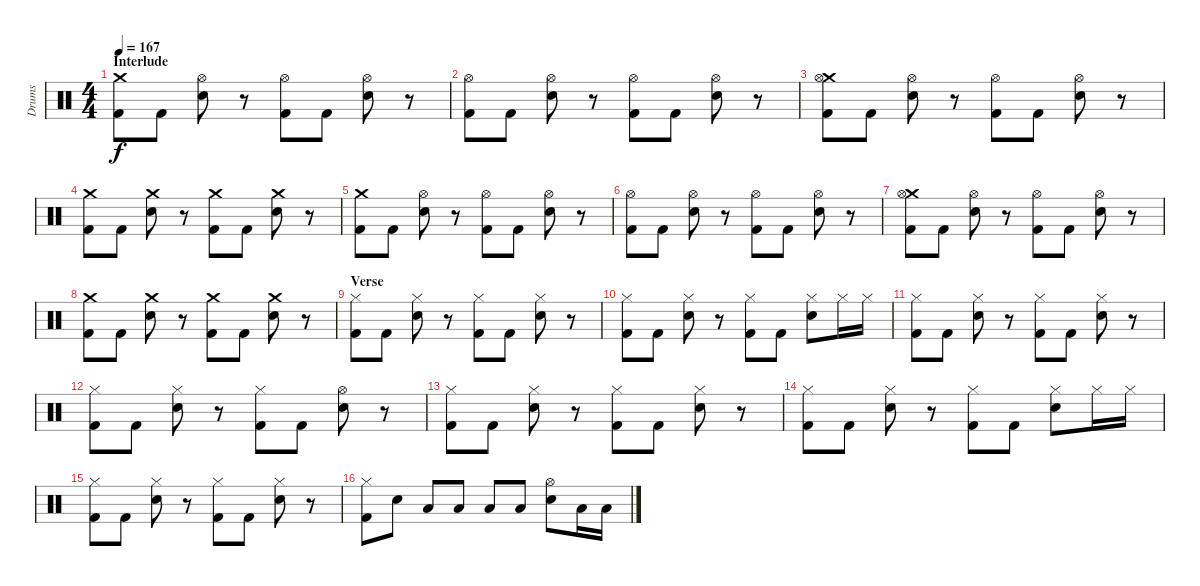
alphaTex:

\track ("Drums" "Drums") {instrument percussion}
\staff {score}
\articulation defaults
\ts (4 4)
\section ("" "Interlude")
\tempo 167
\clef neutral
\ks c
("Crash medium (hit)" "Kick (hit) 2").8{dy f} "Kick (hit) 2".8 ("Hi-Hat (open)" "Electric Snare (hit)").8 r.8 ("Hi-Hat (open)" "Kick (hit) 2").8 "Kick (hit) 2".8 ("Hi-Hat (open)" "Electric Snare (hit)").8 r.8 |
("Hi-Hat (open)" "Kick (hit) 2").8 "Kick (hit) 2".8 ("Hi-Hat (open)" "Electric Snare (hit)").8 r.8 ("Hi-Hat (open)" "Kick (hit) 2").8 "Kick (hit) 2".8 ("Hi-Hat (open)" "Electric Snare (hit)").8 r.8 |
("Crash medium (hit)" "Hi-Hat (open)" "Kick (hit) 2").8 "Kick (hit) 2".8 ("Hi-Hat (open)" "Electric Snare (hit)").8 r.8 ("Hi-Hat (open)" "Kick (hit) 2").8 "Kick (hit) 2".8 ("Hi-Hat (open)" "Electric Snare (hit)").8 r.8 |
("Crash medium (hit)" "Kick (hit) 2").8 "Kick (hit) 2".8 ("Crash medium (hit)" "Electric Snare (hit)").8 r.8 ("Crash medium (hit)" "Kick (hit) 2").8 "Kick (hit) 2".8 ("Crash medium (hit)" "Electric Snare (hit)").8 r.8 |
("Crash medium (hit)" "Kick (hit) 2").8 "Kick (hit) 2".8 ("Hi-Hat (open)" "Electric Snare (hit)").8 r.8 ("Hi-Hat (open)" "Kick (hit) 2").8 "Kick (hit) 2".8 ("Hi-Hat (open)" "Electric Snare (hit)").8 r.8 |
("Hi-Hat (open)" "Kick (hit) 2").8 "Kick (hit) 2".8 ("Hi-Hat (open)" "Electric Snare (hit)").8 r.8 ("Hi-Hat (open)" "Kick (hit) 2").8 "Kick (hit) 2".8 ("Hi-Hat (open)" "Electric Snare (hit)").8 r.8 |
("Crash medium (hit)" "Hi-Hat (open)" "Kick (hit) 2").8 "Kick (hit) 2".8 ("Hi-Hat (open)" "Electric Snare (hit)").8 r.8 ("Hi-Hat (open)" "Kick (hit) 2").8 "Kick (hit) 2".8 ("Hi-Hat (open)" "Electric Snare (hit)").8 r.8 |
("Crash medium (hit)" "Kick (hit) 2").8 "Kick (hit) 2".8 ("Crash medium (hit)" "Electric Snare (hit)").8 r.8 ("Crash medium (hit)" "Kick (hit) 2").8 "Kick (hit) 2".8 ("Crash medium (hit)" "Electric Snare (hit)").8 r.8 |
\section ("" "Verse")
("Hi-Hat (closed)" "Kick (hit) 2").8 "Kick (hit) 2".8 ("Hi-Hat (closed)" "Electric Snare (hit)").8 r.8 ("Hi-Hat (closed)" "Kick (hit) 2").8 "Kick (hit) 2".8 ("Hi-Hat (closed)" "Electric Snare (hit)").8 r.8 |
("Hi-Hat (closed)" "Kick (hit) 2").8 "Kick (hit) 2".8 ("Hi-Hat (closed)" "Electric Snare (hit)").8 r.8 ("Hi-Hat (closed)" "Kick (hit) 2").8 "Kick (hit) 2".8 ("Hi-Hat (closed)" "Electric Snare (hit)").8 "Hi-Hat (closed)".16 "Hi-Hat (closed)".16 |
("Hi-Hat (closed)" "Kick (hit) 2").8 "Kick (hit) 2".8 ("Hi-Hat (closed)" "Electric Snare (hit)").8 r.8 ("Hi-Hat (closed)" "Kick (hit) 2").8 "Kick (hit) 2".8 ("Hi-Hat (closed)" "Electric Snare (hit)").8 r.8 |
("Hi-Hat (closed)" "Kick (hit) 2").8 "Kick (hit) 2".8 ("Hi-Hat (closed)" "Electric Snare (hit)").8 r.8 ("Hi-Hat (closed)" "Kick (hit) 2").8 "Kick (hit) 2".8 ("Hi-Hat (open)" "Electric Snare (hit)").8 r.8 |
("Hi-Hat (closed)" "Kick (hit) 2").8 "Kick (hit) 2".8 ("Hi-Hat (closed)" "Electric Snare (hit)").8 r.8 ("Hi-Hat (closed)" "Kick (hit) 2").8 "Kick (hit) 2".8 ("Hi-Hat (closed)" "Electric Snare (hit)").8 r.8 |
("Hi-Hat (closed)" "Kick (hit) 2").8 "Kick (hit) 2".8 ("Hi-Hat (closed)" "Electric Snare (hit)").8 r.8 ("Hi-Hat (closed)" "Kick (hit) 2").8 "Kick (hit) 2".8 ("Hi-Hat (closed)" "Electric Snare (hit)").8 "Hi-Hat (closed)".16 "Hi-Hat (closed)".16 |
("Hi-Hat (closed)" "Kick (hit) 2").8 "Kick (hit) 2".8 ("Hi-Hat (closed)" "Electric Snare (hit)").8 r.8 ("Hi-Hat (closed)" "Kick (hit) 2").8 "Kick (hit) 2".8 ("Hi-Hat (closed)" "Electric Snare (hit)").8 r.8 |
("Hi-Hat (closed)" "Kick (hit) 2").8 "Electric Snare (hit)".8 "Low Tom (hit)".8 "Low Tom (hit)".8 "Low Tom (hit)".8 "Low Tom (hit)".8 ("Hi-Hat (open)" "Electric Snare (hit)").8 "Low Tom (hit)".16 "Low Tom (hit)".16
